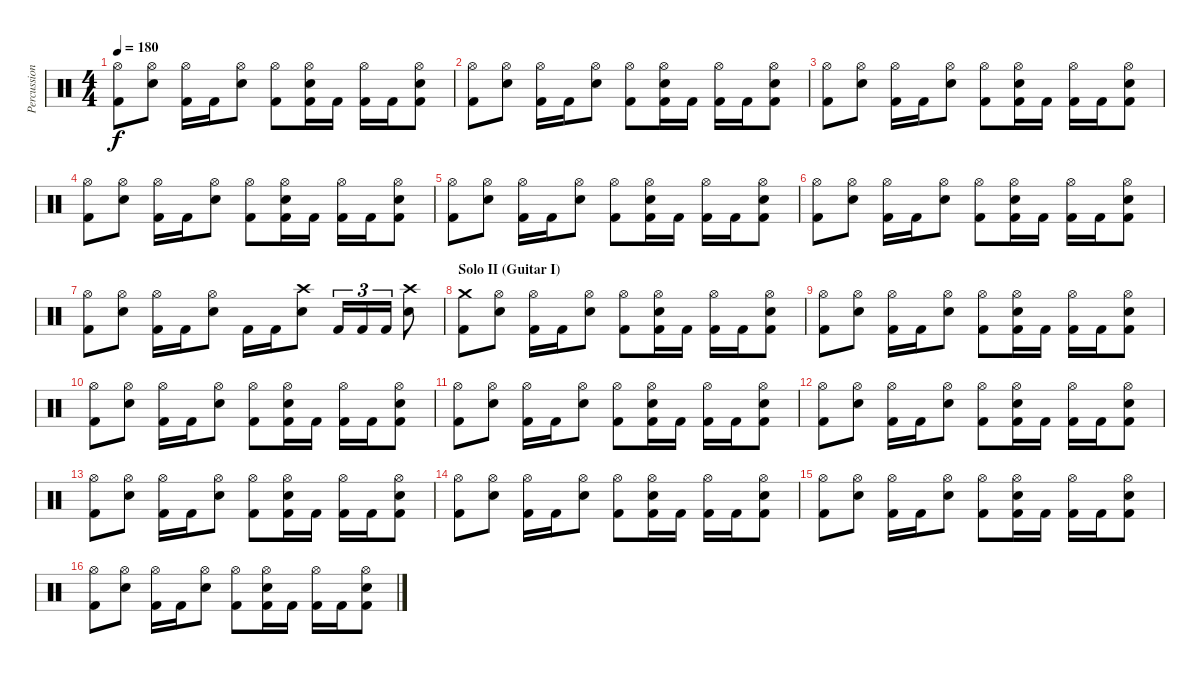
\track ("Percussion" "Percussion") {instrument percussion}
\staff {score}
\articulation defaults
\ts (4 4)
\tempo 180
\clef neutral
\ks c
("Hi-Hat (open)" "Kick (hit) 2").8{dy f} ("Hi-Hat (open)" "Snare (hit) 2").8 ("Hi-Hat (open)" "Kick (hit) 2").16 "Kick (hit) 2".16 ("Hi-Hat (open)" "Snare (hit) 2").8 ("Hi-Hat (open)" "Kick (hit) 2").8 ("Hi-Hat (open)" "Snare (hit) 2" "Kick (hit) 2").16 "Kick (hit) 2".16 ("Hi-Hat (open)" "Kick (hit) 2").16 "Kick (hit) 2".16 ("Hi-Hat (open)" "Snare (hit) 2" "Kick (hit) 2").8 |
("Hi-Hat (open)" "Kick (hit) 2").8 ("Hi-Hat (open)" "Snare (hit) 2").8 ("Hi-Hat (open)" "Kick (hit) 2").16 "Kick (hit) 2".16 ("Hi-Hat (open)" "Snare (hit) 2").8 ("Hi-Hat (open)" "Kick (hit) 2").8 ("Hi-Hat (open)" "Snare (hit) 2" "Kick (hit) 2").16 "Kick (hit) 2".16 ("Hi-Hat (open)" "Kick (hit) 2").16 "Kick (hit) 2".16 ("Hi-Hat (open)" "Snare (hit) 2" "Kick (hit) 2").8 |
("Hi-Hat (open)" "Kick (hit) 2").8 ("Hi-Hat (open)" "Snare (hit) 2").8 ("Hi-Hat (open)" "Kick (hit) 2").16 "Kick (hit) 2".16 ("Hi-Hat (open)" "Snare (hit) 2").8 ("Hi-Hat (open)" "Kick (hit) 2").8 ("Hi-Hat (open)" "Snare (hit) 2" "Kick (hit) 2").16 "Kick (hit) 2".16 ("Hi-Hat (open)" "Kick (hit) 2").16 "Kick (hit) 2".16 ("Hi-Hat (open)" "Snare (hit) 2" "Kick (hit) 2").8 |
("Hi-Hat (open)" "Kick (hit) 2").8 ("Hi-Hat (open)" "Snare (hit) 2").8 ("Hi-Hat (open)" "Kick (hit) 2").16 "Kick (hit) 2".16 ("Hi-Hat (open)" "Snare (hit) 2").8 ("Hi-Hat (open)" "Kick (hit) 2").8 ("Hi-Hat (open)" "Snare (hit) 2" "Kick (hit) 2").16 "Kick (hit) 2".16 ("Hi-Hat (open)" "Kick (hit) 2").16 "Kick (hit) 2".16 ("Hi-Hat (open)" "Snare (hit) 2" "Kick (hit) 2").8 |
("Hi-Hat (open)" "Kick (hit) 2").8 ("Hi-Hat (open)" "Snare (hit) 2").8 ("Hi-Hat (open)" "Kick (hit) 2").16 "Kick (hit) 2".16 ("Hi-Hat (open)" "Snare (hit) 2").8 ("Hi-Hat (open)" "Kick (hit) 2").8 ("Hi-Hat (open)" "Snare (hit) 2" "Kick (hit) 2").16 "Kick (hit) 2".16 ("Hi-Hat (open)" "Kick (hit) 2").16 "Kick (hit) 2".16 ("Hi-Hat (open)" "Snare (hit) 2" "Kick (hit) 2").8 |
("Hi-Hat (open)" "Kick (hit) 2").8 ("Hi-Hat (open)" "Snare (hit) 2").8 ("Hi-Hat (open)" "Kick (hit) 2").16 "Kick (hit) 2".16 ("Hi-Hat (open)" "Snare (hit) 2").8 ("Hi-Hat (open)" "Kick (hit) 2").8 ("Hi-Hat (open)" "Snare (hit) 2" "Kick (hit) 2").16 "Kick (hit) 2".16 ("Hi-Hat (open)" "Kick (hit) 2").16 "Kick (hit) 2".16 ("Hi-Hat (open)" "Snare (hit) 2" "Kick (hit) 2").8 |
("Hi-Hat (open)" "Kick (hit) 2").8 ("Hi-Hat (open)" "Snare (hit) 2").8 ("Hi-Hat (open)" "Kick (hit) 2").16 "Kick (hit) 2".16 ("Hi-Hat (open)" "Snare (hit) 2").8 "Kick (hit) 2".16 "Kick (hit) 2".16 ("Snare (hit) 2" "Crash high (hit)").8 "Kick (hit) 2".16{tu (3 2)} "Kick (hit) 2".16{tu (3 2)} "Kick (hit) 2".16{tu (3 2)} ("Snare (hit) 2" "Crash high (hit)").8 |
\section ("" "Solo II (Guitar I)")
("Crash medium (hit)" "Kick (hit) 2").8 ("Hi-Hat (open)" "Snare (hit) 2").8 ("Hi-Hat (open)" "Kick (hit) 2").16 "Kick (hit) 2".16 ("Hi-Hat (open)" "Snare (hit) 2").8 ("Hi-Hat (open)" "Kick (hit) 2").8 ("Hi-Hat (open)" "Snare (hit) 2" "Kick (hit) 2").16 "Kick (hit) 2".16 ("Hi-Hat (open)" "Kick (hit) 2").16 "Kick (hit) 2".16 ("Hi-Hat (open)" "Snare (hit) 2" "Kick (hit) 2").8 |
("Hi-Hat (open)" "Kick (hit) 2").8 ("Hi-Hat (open)" "Snare (hit) 2").8 ("Hi-Hat (open)" "Kick (hit) 2").16 "Kick (hit) 2".16 ("Hi-Hat (open)" "Snare (hit) 2").8 ("Hi-Hat (open)" "Kick (hit) 2").8 ("Hi-Hat (open)" "Snare (hit) 2" "Kick (hit) 2").16 "Kick (hit) 2".16 ("Hi-Hat (open)" "Kick (hit) 2").16 "Kick (hit) 2".16 ("Hi-Hat (open)" "Snare (hit) 2" "Kick (hit) 2").8 |
("Hi-Hat (open)" "Kick (hit) 2").8 ("Hi-Hat (open)" "Snare (hit) 2").8 ("Hi-Hat (open)" "Kick (hit) 2").16 "Kick (hit) 2".16 ("Hi-Hat (open)" "Snare (hit) 2").8 ("Hi-Hat (open)" "Kick (hit) 2").8 ("Hi-Hat (open)" "Snare (hit) 2" "Kick (hit) 2").16 "Kick (hit) 2".16 ("Hi-Hat (open)" "Kick (hit) 2").16 "Kick (hit) 2".16 ("Hi-Hat (open)" "Snare (hit) 2" "Kick (hit) 2").8 |
("Hi-Hat (open)" "Kick (hit) 2").8 ("Hi-Hat (open)" "Snare (hit) 2").8 ("Hi-Hat (open)" "Kick (hit) 2").16 "Kick (hit) 2".16 ("Hi-Hat (open)" "Snare (hit) 2").8 ("Hi-Hat (open)" "Kick (hit) 2").8 ("Hi-Hat (open)" "Snare (hit) 2" "Kick (hit) 2").16 "Kick (hit) 2".16 ("Hi-Hat (open)" "Kick (hit) 2").16 "Kick (hit) 2".16 ("Hi-Hat (open)" "Snare (hit) 2" "Kick (hit) 2").8 |
("Hi-Hat (open)" "Kick (hit) 2").8 ("Hi-Hat (open)" "Snare (hit) 2").8 ("Hi-Hat (open)" "Kick (hit) 2").16 "Kick (hit) 2".16 ("Hi-Hat (open)" "Snare (hit) 2").8 ("Hi-Hat (open)" "Kick (hit) 2").8 ("Hi-Hat (open)" "Snare (hit) 2" "Kick (hit) 2").16 "Kick (hit) 2".16 ("Hi-Hat (open)" "Kick (hit) 2").16 "Kick (hit) 2".16 ("Hi-Hat (open)" "Snare (hit) 2" "Kick (hit) 2").8 |
("Hi-Hat (open)" "Kick (hit) 2").8 ("Hi-Hat (open)" "Snare (hit) 2").8 ("Hi-Hat (open)" "Kick (hit) 2").16 "Kick (hit) 2".16 ("Hi-Hat (open)" "Snare (hit) 2").8 ("Hi-Hat (open)" "Kick (hit) 2").8 ("Hi-Hat (open)" "Snare (hit) 2" "Kick (hit) 2").16 "Kick (hit) 2".16 ("Hi-Hat (open)" "Kick (hit) 2").16 "Kick (hit) 2".16 ("Hi-Hat (open)" "Snare (hit) 2" "Kick (hit) 2").8 |
("Hi-Hat (open)" "Kick (hit) 2").8 ("Hi-Hat (open)" "Snare (hit) 2").8 ("Hi-Hat (open)" "Kick (hit) 2").16 "Kick (hit) 2".16 ("Hi-Hat (open)" "Snare (hit) 2").8 ("Hi-Hat (open)" "Kick (hit) 2").8 ("Hi-Hat (open)" "Snare (hit) 2" "Kick (hit) 2").16 "Kick (hit) 2".16 ("Hi-Hat (open)" "Kick (hit) 2").16 "Kick (hit) 2".16 ("Hi-Hat (open)" "Snare (hit) 2" "Kick (hit) 2").8 |
("Hi-Hat (open)" "Kick (hit) 2").8 ("Hi-Hat (open)" "Snare (hit) 2").8 ("Hi-Hat (open)" "Kick (hit) 2").16 "Kick (hit) 2".16 ("Hi-Hat (open)" "Snare (hit) 2").8 ("Hi-Hat (open)" "Kick (hit) 2").8 ("Hi-Hat (open)" "Snare (hit) 2" "Kick (hit) 2").16 "Kick (hit) 2".16 ("Hi-Hat (open)" "Kick (hit) 2").16 "Kick (hit) 2".16 ("Hi-Hat (open)" "Snare (hit) 2" "Kick (hit) 2").8 |
("Hi-Hat (open)" "Kick (hit) 2").8 ("Hi-Hat (open)" "Snare (hit) 2").8 ("Hi-Hat (open)" "Kick (hit) 2").16 "Kick (hit) 2".16 ("Hi-Hat (open)" "Snare (hit) 2").8 ("Hi-Hat (open)" "Kick (hit) 2").8 ("Hi-Hat (open)" "Snare (hit) 2" "Kick (hit) 2").16 "Kick (hit) 2".16 ("Hi-Hat (open)" "Kick (hit) 2").16 "Kick (hit) 2".16 ("Hi-Hat (open)" "Snare (hit) 2" "Kick (hit) 2").8
